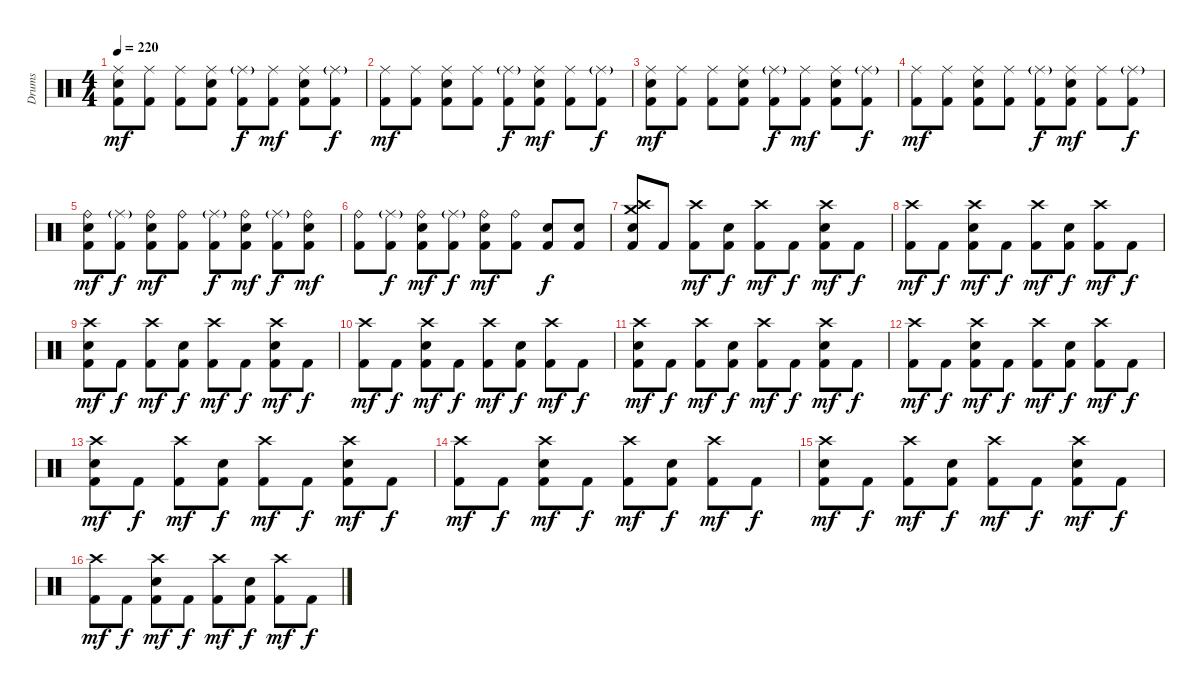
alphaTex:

\bracketExtendMode groupsimilarinstruments
\otherSystemsTrackNameOrientation horizontal
\track ("Drumkit" "Drums") {instrument percussion}
\staff {score}
\articulation defaults
\ts (4 4)
\tempo 220
\clef neutral
\ks c
("Ride (middle)" "Snare (hit) 2" "Kick (hit) 2").8{dy mf beam Down} ("Ride (middle)" "Kick (hit) 2").8{beam Down} ("Ride (middle)" "Kick (hit) 2").8{beam Down} ("Ride (middle)" "Snare (hit) 2" "Kick (hit) 2").8{beam Down} ("Ride (middle)"{g} "Kick (hit) 2").8{dy f beam Down} ("Ride (middle)" "Kick (hit) 2").8{dy mf beam Down} ("Ride (middle)" "Snare (hit) 2" "Kick (hit) 2").8{beam Down} ("Ride (middle)"{g} "Kick (hit) 2").8{dy f beam Down} |
("Ride (middle)" "Kick (hit) 2").8{dy mf beam Down} ("Ride (middle)" "Kick (hit) 2").8{beam Down} ("Ride (middle)" "Snare (hit) 2" "Kick (hit) 2").8{beam Down} ("Ride (middle)" "Kick (hit) 2").8{beam Down} ("Ride (middle)"{g} "Kick (hit) 2").8{dy f beam Down} ("Ride (middle)" "Snare (hit) 2" "Kick (hit) 2").8{dy mf beam Down} ("Ride (middle)" "Kick (hit) 2").8{beam Down} ("Ride (middle)"{g} "Kick (hit) 2").8{dy f beam Down} |
("Ride (middle)" "Snare (hit) 2" "Kick (hit) 2").8{dy mf beam Down} ("Ride (middle)" "Kick (hit) 2").8{beam Down} ("Ride (middle)" "Kick (hit) 2").8{beam Down} ("Ride (middle)" "Snare (hit) 2" "Kick (hit) 2").8{beam Down} ("Ride (middle)"{g} "Kick (hit) 2").8{dy f beam Down} ("Ride (middle)" "Kick (hit) 2").8{dy mf beam Down} ("Ride (middle)" "Snare (hit) 2" "Kick (hit) 2").8{beam Down} ("Ride (middle)"{g} "Kick (hit) 2").8{dy f beam Down} |
("Ride (middle)" "Kick (hit) 2").8{dy mf beam Down} ("Ride (middle)" "Kick (hit) 2").8{beam Down} ("Ride (middle)" "Snare (hit) 2" "Kick (hit) 2").8{beam Down} ("Ride (middle)" "Kick (hit) 2").8{beam Down} ("Ride (middle)"{g} "Kick (hit) 2").8{dy f beam Down} ("Ride (middle)" "Snare (hit) 2" "Kick (hit) 2").8{dy mf beam Down} ("Ride (middle)" "Kick (hit) 2").8{beam Down} ("Ride (middle)"{g} "Kick (hit) 2").8{dy f beam Down} |
("Ride (bell)" "Snare (hit) 2" "Kick (hit) 2").8{dy mf beam Down} ("Ride (middle)"{g} "Kick (hit) 2").8{dy f beam Down} ("Ride (bell)" "Snare (hit) 2" "Kick (hit) 2").8{dy mf beam Down} ("Ride (bell)" "Kick (hit) 2").8{beam Down} ("Ride (middle)"{g} "Kick (hit) 2").8{dy f beam Down} ("Ride (bell)" "Snare (hit) 2" "Kick (hit) 2").8{dy mf beam Down} ("Ride (middle)"{g} "Kick (hit) 2").8{dy f beam Down} ("Ride (bell)" "Snare (hit) 2" "Kick (hit) 2").8{dy mf beam Down} |
("Ride (bell)" "Kick (hit) 2").8{beam Down} ("Ride (middle)"{g} "Kick (hit) 2").8{dy f beam Down} ("Ride (bell)" "Snare (hit) 2" "Kick (hit) 2").8{dy mf beam Down} ("Ride (middle)"{g} "Kick (hit) 2").8{dy f beam Down} ("Ride (bell)" "Snare (hit) 2" "Kick (hit) 2").8{dy mf beam Down} ("Ride (bell)" "Kick (hit) 2").8{beam Down} ("Snare (hit) 2" "Kick (hit) 2").8{dy f beam Up} ("Snare (hit) 2" "Kick (hit) 2").8{beam Up} |
("Crash medium (hit)" "Crash high (hit)" "Snare (hit) 2" "Kick (hit) 2").8{beam Up} "Kick (hit) 2".8{beam Up} ("Crash high (hit)" "Kick (hit) 2").8{dy mf beam Down} ("Snare (hit) 2" "Kick (hit) 2").8{dy f beam Down} ("Crash high (hit)" "Kick (hit) 2").8{dy mf beam Down} "Kick (hit) 2".8{dy f beam Down} ("Crash high (hit)" "Snare (hit) 2" "Kick (hit) 2").8{dy mf beam Down} "Kick (hit) 2".8{dy f beam Down} |
("Crash high (hit)" "Kick (hit) 2").8{dy mf beam Down} "Kick (hit) 2".8{dy f beam Down} ("Crash high (hit)" "Snare (hit) 2" "Kick (hit) 2").8{dy mf beam Down} "Kick (hit) 2".8{dy f beam Down} ("Crash high (hit)" "Kick (hit) 2").8{dy mf beam Down} ("Snare (hit) 2" "Kick (hit) 2").8{dy f beam Down} ("Crash high (hit)" "Kick (hit) 2").8{dy mf beam Down} "Kick (hit) 2".8{dy f beam Down} |
("Crash high (hit)" "Snare (hit) 2" "Kick (hit) 2").8{dy mf beam Down} "Kick (hit) 2".8{dy f beam Down} ("Crash high (hit)" "Kick (hit) 2").8{dy mf beam Down} ("Snare (hit) 2" "Kick (hit) 2").8{dy f beam Down} ("Crash high (hit)" "Kick (hit) 2").8{dy mf beam Down} "Kick (hit) 2".8{dy f beam Down} ("Crash high (hit)" "Snare (hit) 2" "Kick (hit) 2").8{dy mf beam Down} "Kick (hit) 2".8{dy f beam Down} |
("Crash high (hit)" "Kick (hit) 2").8{dy mf beam Down} "Kick (hit) 2".8{dy f beam Down} ("Crash high (hit)" "Snare (hit) 2" "Kick (hit) 2").8{dy mf beam Down} "Kick (hit) 2".8{dy f beam Down} ("Crash high (hit)" "Kick (hit) 2").8{dy mf beam Down} ("Snare (hit) 2" "Kick (hit) 2").8{dy f beam Down} ("Crash high (hit)" "Kick (hit) 2").8{dy mf beam Down} "Kick (hit) 2".8{dy f beam Down} |
("Crash high (hit)" "Snare (hit) 2" "Kick (hit) 2").8{dy mf beam Down} "Kick (hit) 2".8{dy f beam Down} ("Crash high (hit)" "Kick (hit) 2").8{dy mf beam Down} ("Snare (hit) 2" "Kick (hit) 2").8{dy f beam Down} ("Crash high (hit)" "Kick (hit) 2").8{dy mf beam Down} "Kick (hit) 2".8{dy f beam Down} ("Crash high (hit)" "Snare (hit) 2" "Kick (hit) 2").8{dy mf beam Down} "Kick (hit) 2".8{dy f beam Down} |
("Crash high (hit)" "Kick (hit) 2").8{dy mf beam Down} "Kick (hit) 2".8{dy f beam Down} ("Crash high (hit)" "Snare (hit) 2" "Kick (hit) 2").8{dy mf beam Down} "Kick (hit) 2".8{dy f beam Down} ("Crash high (hit)" "Kick (hit) 2").8{dy mf beam Down} ("Snare (hit) 2" "Kick (hit) 2").8{dy f beam Down} ("Crash high (hit)" "Kick (hit) 2").8{dy mf beam Down} "Kick (hit) 2".8{dy f beam Down} |
("Crash high (hit)" "Snare (hit) 2" "Kick (hit) 2").8{dy mf beam Down} "Kick (hit) 2".8{dy f beam Down} ("Crash high (hit)" "Kick (hit) 2").8{dy mf beam Down} ("Snare (hit) 2" "Kick (hit) 2").8{dy f beam Down} ("Crash high (hit)" "Kick (hit) 2").8{dy mf beam Down} "Kick (hit) 2".8{dy f beam Down} ("Crash high (hit)" "Snare (hit) 2" "Kick (hit) 2").8{dy mf beam Down} "Kick (hit) 2".8{dy f beam Down} |
("Crash high (hit)" "Kick (hit) 2").8{dy mf beam Down} "Kick (hit) 2".8{dy f beam Down} ("Crash high (hit)" "Snare (hit) 2" "Kick (hit) 2").8{dy mf beam Down} "Kick (hit) 2".8{dy f beam Down} ("Crash high (hit)" "Kick (hit) 2").8{dy mf beam Down} ("Snare (hit) 2" "Kick (hit) 2").8{dy f beam Down} ("Crash high (hit)" "Kick (hit) 2").8{dy mf beam Down} "Kick (hit) 2".8{dy f beam Down} |
("Crash high (hit)" "Snare (hit) 2" "Kick (hit) 2").8{dy mf beam Down} "Kick (hit) 2".8{dy f beam Down} ("Crash high (hit)" "Kick (hit) 2").8{dy mf beam Down} ("Snare (hit) 2" "Kick (hit) 2").8{dy f beam Down} ("Crash high (hit)" "Kick (hit) 2").8{dy mf beam Down} "Kick (hit) 2".8{dy f beam Down} ("Crash high (hit)" "Snare (hit) 2" "Kick (hit) 2").8{dy mf beam Down} "Kick (hit) 2".8{dy f beam Down} |
("Crash high (hit)" "Kick (hit) 2").8{dy mf beam Down} "Kick (hit) 2".8{dy f beam Down} ("Crash high (hit)" "Snare (hit) 2" "Kick (hit) 2").8{dy mf beam Down} "Kick (hit) 2".8{dy f beam Down} ("Crash high (hit)" "Kick (hit) 2").8{dy mf beam Down} ("Snare (hit) 2" "Kick (hit) 2").8{dy f beam Down} ("Crash high (hit)" "Kick (hit) 2").8{dy mf beam Down} "Kick (hit) 2".8{dy f beam Down}
